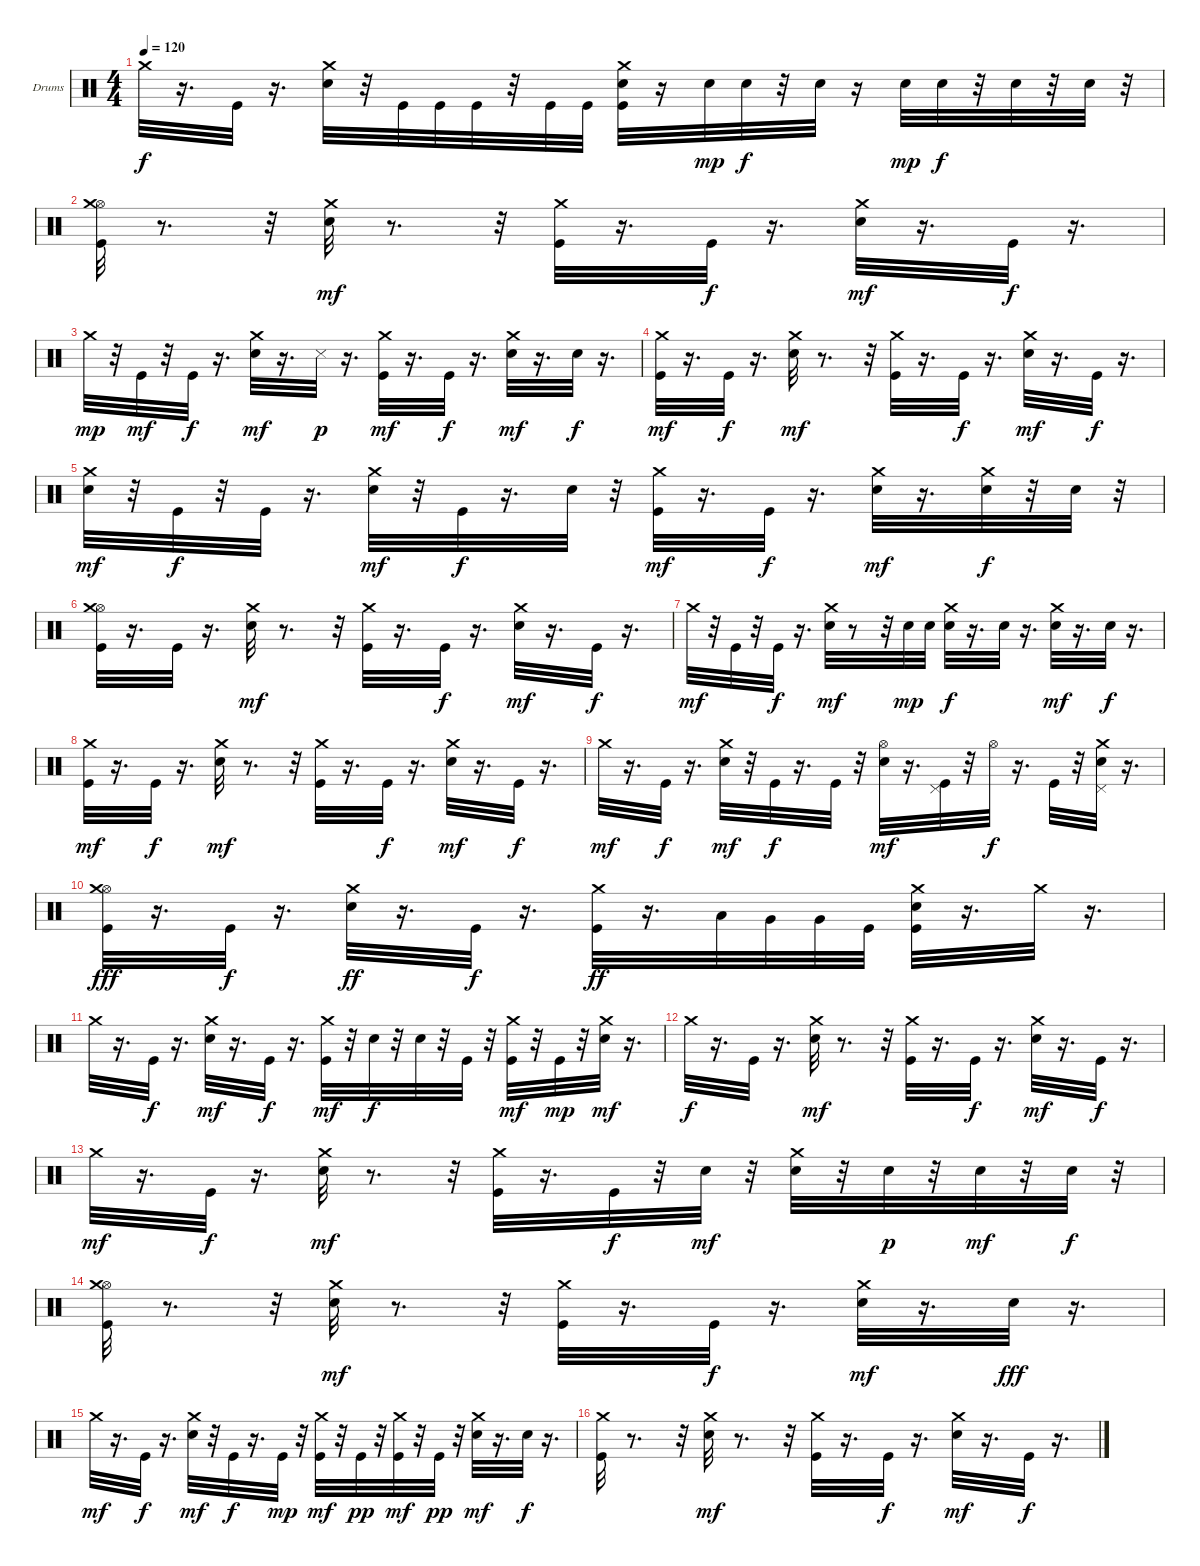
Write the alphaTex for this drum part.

\bracketExtendMode groupsimilarinstruments
\firstSystemTrackNameOrientation horizontal
\otherSystemsTrackNameOrientation horizontal
\track ("Drumkit" "Drums") {instrument percussion}
\staff {score}
\articulation defaults
\ts (4 4)
\tempo 120
\clef neutral
\ks c "Crash medium (hit)".32{dy f}
r.16{d} "Kick (hit)".32 r.16{d} ("Crash medium (hit)" "Snare (hit) 2").32 r.32 "Kick (hit)".32 "Kick (hit)".32 "Kick (hit)".32 r.32 "Kick (hit)".32 "Kick (hit)".32 ("Crash medium (hit)" "Snare (hit) 2" "Kick (hit)").32 r.16 "Snare (hit) 2".32{dy mp} "Snare (hit) 2".32{dy f} r.32 "Snare (hit) 2".32 r.16 "Snare (hit) 2".32{dy mp} "Snare (hit) 2".32{dy f} r.32 "Snare (hit) 2".32 r.32 "Snare (hit) 2".32 r.32 |
("Hi-Hat (open)" "Crash medium (hit)" "Kick (hit)").32 r.8{d} r.32 ("Crash medium (hit)" "Snare (hit) 2").32{dy mf} r.8{d} r.32 ("Crash medium (hit)" "Kick (hit)").32 r.16{d} "Kick (hit)".32{dy f} r.16{d} ("Crash medium (hit)" "Snare (hit) 2").32{dy mf} r.16{d} "Kick (hit)".32{dy f} r.16{d} |
"Crash medium (hit)".32{dy mp} r.32 "Kick (hit)".32{dy mf} r.32 "Kick (hit)".32{dy f} r.16{d} ("Crash medium (hit)" "Snare (hit) 2").32{dy mf} r.16{d} "Snare (side stick) 3".32{dy p} r.16{d} ("Crash medium (hit)" "Kick (hit)").32{dy mf} r.16{d} "Kick (hit)".32{dy f} r.16{d} ("Crash medium (hit)" "Snare (hit) 2").32{dy mf} r.16{d} "Snare (hit) 2".32{dy f} r.16{d} |
("Crash medium (hit)" "Kick (hit)").32{dy mf} r.16{d} "Kick (hit)".32{dy f} r.16{d} ("Crash medium (hit)" "Snare (hit) 2").32{dy mf} r.8{d} r.32 ("Crash medium (hit)" "Kick (hit)").32 r.16{d} "Kick (hit)".32{dy f} r.16{d} ("Crash medium (hit)" "Snare (hit) 2").32{dy mf} r.16{d} "Kick (hit)".32{dy f} r.16{d} |
("Crash medium (hit)" "Snare (hit) 2").32{dy mf} r.32 "Kick (hit)".32{dy f} r.32 "Kick (hit)".32 r.16{d} ("Crash medium (hit)" "Snare (hit) 2").32{dy mf} r.32 "Kick (hit)".32{dy f} r.16{d} "Snare (hit) 2".32 r.32 ("Crash medium (hit)" "Kick (hit)").32{dy mf} r.16{d} "Kick (hit)".32{dy f} r.16{d} ("Crash medium (hit)" "Snare (hit) 2").32{dy mf} r.16{d} ("Snare (hit) 2" "Crash medium (hit)").32{dy f} r.32 "Snare (hit) 2".32 r.32 |
("Hi-Hat (open)" "Crash medium (hit)" "Kick (hit)").32 r.16{d} "Kick (hit)".32 r.16{d} ("Crash medium (hit)" "Snare (hit) 2").32{dy mf} r.8{d} r.32 ("Crash medium (hit)" "Kick (hit)").32 r.16{d} "Kick (hit)".32{dy f} r.16{d} ("Crash medium (hit)" "Snare (hit) 2").32{dy mf} r.16{d} "Kick (hit)".32{dy f} r.16{d} |
"Crash medium (hit)".32{dy mf} r.32 "Kick (hit)".32 r.32 "Kick (hit)".32{dy f} r.16{d} ("Crash medium (hit)" "Snare (hit) 2").32{dy mf} r.8 r.32 "Snare (hit) 2".32{dy mp} "Snare (hit) 2".32 ("Snare (hit) 2" "Crash medium (hit)").32{dy f} r.16{d} "Snare (hit) 2".32 r.16{d} ("Crash medium (hit)" "Snare (hit) 2").32{dy mf} r.16{d} "Snare (hit) 2".32{dy f} r.16{d} |
("Crash medium (hit)" "Kick (hit)").32{dy mf} r.16{d} "Kick (hit)".32{dy f} r.16{d} ("Crash medium (hit)" "Snare (hit) 2").32{dy mf} r.8{d} r.32 ("Crash medium (hit)" "Kick (hit)").32 r.16{d} "Kick (hit)".32{dy f} r.16{d} ("Crash medium (hit)" "Snare (hit) 2").32{dy mf} r.16{d} "Kick (hit)".32{dy f} r.16{d} |
"Crash medium (hit)".32{dy mf} r.16{d} "Kick (hit)".32{dy f} r.16{d} ("Crash medium (hit)" "Snare (hit) 2").32{dy mf} r.32 "Kick (hit)".32{dy f} r.16{d} "Kick (hit)".32 r.32 ("Hi-Hat (open)" "Snare (hit) 2").32{dy mf} r.16{d} ("Pedal Hi-Hat (hit)" "Kick (hit)").32 r.32 "Hi-Hat (open)".32{dy f} r.16{d} "Kick (hit)".32 r.32 ("Pedal Hi-Hat (hit)" "Crash medium (hit)" "Snare (hit) 2").32 r.16{d} |
("Hi-Hat (open)" "Crash medium (hit)" "Kick (hit)").32{dy fff} r.16{d} "Kick (hit)".32{dy f} r.16{d} ("Crash medium (hit)" "Snare (hit) 2").32{dy ff} r.16{d} "Kick (hit)".32{dy f} r.16{d} ("Crash medium (hit)" "Kick (hit)").32{dy ff} r.16{d} "Low Tom (hit)".32 "Very Low Tom (hit)".32 "Very Low Tom (hit)".32 "Kick (hit)".32 ("Crash medium (hit)" "Kick (hit)" "Snare (hit) 2").32 r.16{d} "Crash medium (hit)".32 r.16{d} |
"Crash medium (hit)".32 r.16{d} "Kick (hit)".32{dy f} r.16{d} ("Crash medium (hit)" "Snare (hit) 2").32{dy mf} r.16{d} "Kick (hit)".32{dy f} r.16{d} ("Crash medium (hit)" "Kick (hit)").32{dy mf} r.32 "Snare (hit) 2".32{dy f} r.32 "Snare (hit) 2".32 r.32 "Kick (hit)".32 r.32 ("Crash medium (hit)" "Kick (hit)").32{dy mf} r.32 "Kick (hit)".32{dy mp} r.32 ("Crash medium (hit)" "Snare (hit) 2").32{dy mf} r.16{d} |
"Crash medium (hit)".32{dy f} r.16{d} "Kick (hit)".32 r.16{d} ("Crash medium (hit)" "Snare (hit) 2").32{dy mf} r.8{d} r.32 ("Crash medium (hit)" "Kick (hit)").32 r.16{d} "Kick (hit)".32{dy f} r.16{d} ("Crash medium (hit)" "Snare (hit) 2").32{dy mf} r.16{d} "Kick (hit)".32{dy f} r.16{d} |
"Crash medium (hit)".32{dy mf} r.16{d} "Kick (hit)".32{dy f} r.16{d} ("Crash medium (hit)" "Snare (hit) 2").32{dy mf} r.8{d} r.32 ("Crash medium (hit)" "Kick (hit)").32 r.16{d} "Kick (hit)".32{dy f} r.32 "Snare (hit) 2".32{dy mf} r.32 ("Crash medium (hit)" "Snare (hit) 2").32 r.32 "Snare (hit) 2".32{dy p} r.32 "Snare (hit) 2".32{dy mf} r.32 "Snare (hit) 2".32{dy f} r.32 |
("Hi-Hat (open)" "Crash medium (hit)" "Kick (hit)").32 r.8{d} r.32 ("Crash medium (hit)" "Snare (hit) 2").32{dy mf} r.8{d} r.32 ("Crash medium (hit)" "Kick (hit)").32 r.16{d} "Kick (hit)".32{dy f} r.16{d} ("Crash medium (hit)" "Snare (hit) 2").32{dy mf} r.16{d} "Snare (hit) 2".32{dy fff} r.16{d} |
"Crash medium (hit)".32{dy mf} r.16{d} "Kick (hit)".32{dy f} r.16{d} ("Crash medium (hit)" "Snare (hit) 2").32{dy mf} r.32 "Kick (hit)".32{dy f} r.16{d} "Kick (hit)".32{dy mp} r.32 ("Crash medium (hit)" "Kick (hit)").32{dy mf} r.32 "Kick (hit)".32{dy pp} r.32 ("Crash medium (hit)" "Kick (hit)").32{dy mf} r.32 "Kick (hit)".32{dy pp} r.32 ("Crash medium (hit)" "Snare (hit) 2").32{dy mf} r.16{d} "Snare (hit) 2".32{dy f} r.16{d} |
("Kick (hit)" "Crash medium (hit)").32 r.8{d} r.32 ("Crash medium (hit)" "Snare (hit) 2").32{dy mf} r.8{d} r.32 ("Crash medium (hit)" "Kick (hit)").32 r.16{d} "Kick (hit)".32{dy f} r.16{d} ("Crash medium (hit)" "Snare (hit) 2").32{dy mf} r.16{d} "Kick (hit)".32{dy f} r.16{d}
